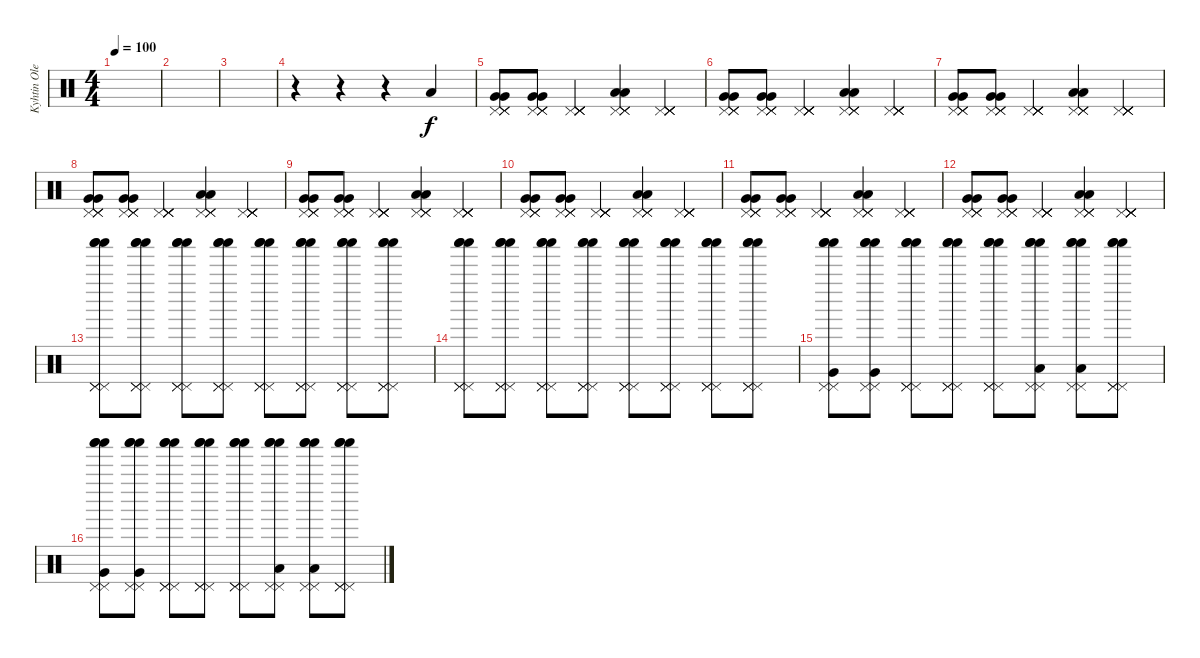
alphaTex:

\track ("Kyhtin Oleksandr" "Kyhtin Ole") {instrument percussion}
\staff {score}
\articulation defaults
\ts (4 4)
\tempo 100
\clef neutral
\ks c
|
|
|
r.4 r.4 r.4 "Low Floor Tom (hit)".4 |
("Pedal Hi-Hat (hit)" "Pedal Hi-Hat (hit)" "Pedal Hi-Hat (hit)" "Pedal Hi-Hat (hit)" "Very Low Tom (hit)" "Very Low Tom (hit)").8 ("Pedal Hi-Hat (hit)" "Pedal Hi-Hat (hit)" "Pedal Hi-Hat (hit)" "Pedal Hi-Hat (hit)" "Very Low Tom (hit)" "Very Low Tom (hit)").8 ("Pedal Hi-Hat (hit)" "Pedal Hi-Hat (hit)" "Pedal Hi-Hat (hit)" "Pedal Hi-Hat (hit)" "Pedal Hi-Hat (hit)" "Pedal Hi-Hat (hit)").4 ("Pedal Hi-Hat (hit)" "Pedal Hi-Hat (hit)" "Pedal Hi-Hat (hit)" "Pedal Hi-Hat (hit)" "Low Floor Tom (hit)" "Low Floor Tom (hit)").4 ("Pedal Hi-Hat (hit)" "Pedal Hi-Hat (hit)" "Pedal Hi-Hat (hit)" "Pedal Hi-Hat (hit)" "Pedal Hi-Hat (hit)" "Pedal Hi-Hat (hit)").4 |
("Pedal Hi-Hat (hit)" "Pedal Hi-Hat (hit)" "Pedal Hi-Hat (hit)" "Pedal Hi-Hat (hit)" "Very Low Tom (hit)" "Very Low Tom (hit)").8 ("Pedal Hi-Hat (hit)" "Pedal Hi-Hat (hit)" "Pedal Hi-Hat (hit)" "Pedal Hi-Hat (hit)" "Very Low Tom (hit)" "Very Low Tom (hit)").8 ("Pedal Hi-Hat (hit)" "Pedal Hi-Hat (hit)" "Pedal Hi-Hat (hit)" "Pedal Hi-Hat (hit)" "Pedal Hi-Hat (hit)" "Pedal Hi-Hat (hit)").4 ("Pedal Hi-Hat (hit)" "Pedal Hi-Hat (hit)" "Pedal Hi-Hat (hit)" "Pedal Hi-Hat (hit)" "Low Floor Tom (hit)" "Low Floor Tom (hit)").4 ("Pedal Hi-Hat (hit)" "Pedal Hi-Hat (hit)" "Pedal Hi-Hat (hit)" "Pedal Hi-Hat (hit)" "Pedal Hi-Hat (hit)" "Pedal Hi-Hat (hit)").4 |
("Pedal Hi-Hat (hit)" "Pedal Hi-Hat (hit)" "Pedal Hi-Hat (hit)" "Pedal Hi-Hat (hit)" "Very Low Tom (hit)" "Very Low Tom (hit)").8 ("Pedal Hi-Hat (hit)" "Pedal Hi-Hat (hit)" "Pedal Hi-Hat (hit)" "Pedal Hi-Hat (hit)" "Very Low Tom (hit)" "Very Low Tom (hit)").8 ("Pedal Hi-Hat (hit)" "Pedal Hi-Hat (hit)" "Pedal Hi-Hat (hit)" "Pedal Hi-Hat (hit)" "Pedal Hi-Hat (hit)" "Pedal Hi-Hat (hit)").4 ("Pedal Hi-Hat (hit)" "Pedal Hi-Hat (hit)" "Pedal Hi-Hat (hit)" "Pedal Hi-Hat (hit)" "Low Floor Tom (hit)" "Low Floor Tom (hit)").4 ("Pedal Hi-Hat (hit)" "Pedal Hi-Hat (hit)" "Pedal Hi-Hat (hit)" "Pedal Hi-Hat (hit)" "Pedal Hi-Hat (hit)" "Pedal Hi-Hat (hit)").4 |
("Pedal Hi-Hat (hit)" "Pedal Hi-Hat (hit)" "Pedal Hi-Hat (hit)" "Pedal Hi-Hat (hit)" "Very Low Tom (hit)" "Very Low Tom (hit)").8 ("Pedal Hi-Hat (hit)" "Pedal Hi-Hat (hit)" "Pedal Hi-Hat (hit)" "Pedal Hi-Hat (hit)" "Very Low Tom (hit)" "Very Low Tom (hit)").8 ("Pedal Hi-Hat (hit)" "Pedal Hi-Hat (hit)" "Pedal Hi-Hat (hit)" "Pedal Hi-Hat (hit)" "Pedal Hi-Hat (hit)" "Pedal Hi-Hat (hit)").4 ("Pedal Hi-Hat (hit)" "Pedal Hi-Hat (hit)" "Pedal Hi-Hat (hit)" "Pedal Hi-Hat (hit)" "Low Floor Tom (hit)" "Low Floor Tom (hit)").4 ("Pedal Hi-Hat (hit)" "Pedal Hi-Hat (hit)" "Pedal Hi-Hat (hit)" "Pedal Hi-Hat (hit)" "Pedal Hi-Hat (hit)" "Pedal Hi-Hat (hit)").4 |
("Pedal Hi-Hat (hit)" "Pedal Hi-Hat (hit)" "Pedal Hi-Hat (hit)" "Pedal Hi-Hat (hit)" "Very Low Tom (hit)" "Very Low Tom (hit)").8 ("Pedal Hi-Hat (hit)" "Pedal Hi-Hat (hit)" "Pedal Hi-Hat (hit)" "Pedal Hi-Hat (hit)" "Very Low Tom (hit)" "Very Low Tom (hit)").8 ("Pedal Hi-Hat (hit)" "Pedal Hi-Hat (hit)" "Pedal Hi-Hat (hit)" "Pedal Hi-Hat (hit)" "Pedal Hi-Hat (hit)" "Pedal Hi-Hat (hit)").4 ("Pedal Hi-Hat (hit)" "Pedal Hi-Hat (hit)" "Pedal Hi-Hat (hit)" "Pedal Hi-Hat (hit)" "Low Floor Tom (hit)" "Low Floor Tom (hit)").4 ("Pedal Hi-Hat (hit)" "Pedal Hi-Hat (hit)" "Pedal Hi-Hat (hit)" "Pedal Hi-Hat (hit)" "Pedal Hi-Hat (hit)" "Pedal Hi-Hat (hit)").4 |
("Pedal Hi-Hat (hit)" "Pedal Hi-Hat (hit)" "Pedal Hi-Hat (hit)" "Pedal Hi-Hat (hit)" "Very Low Tom (hit)" "Very Low Tom (hit)").8 ("Pedal Hi-Hat (hit)" "Pedal Hi-Hat (hit)" "Pedal Hi-Hat (hit)" "Pedal Hi-Hat (hit)" "Very Low Tom (hit)" "Very Low Tom (hit)").8 ("Pedal Hi-Hat (hit)" "Pedal Hi-Hat (hit)" "Pedal Hi-Hat (hit)" "Pedal Hi-Hat (hit)" "Pedal Hi-Hat (hit)" "Pedal Hi-Hat (hit)").4 ("Pedal Hi-Hat (hit)" "Pedal Hi-Hat (hit)" "Pedal Hi-Hat (hit)" "Pedal Hi-Hat (hit)" "Low Floor Tom (hit)" "Low Floor Tom (hit)").4 ("Pedal Hi-Hat (hit)" "Pedal Hi-Hat (hit)" "Pedal Hi-Hat (hit)" "Pedal Hi-Hat (hit)" "Pedal Hi-Hat (hit)" "Pedal Hi-Hat (hit)").4 |
("Pedal Hi-Hat (hit)" "Pedal Hi-Hat (hit)" "Pedal Hi-Hat (hit)" "Pedal Hi-Hat (hit)" "Very Low Tom (hit)" "Very Low Tom (hit)").8 ("Pedal Hi-Hat (hit)" "Pedal Hi-Hat (hit)" "Pedal Hi-Hat (hit)" "Pedal Hi-Hat (hit)" "Very Low Tom (hit)" "Very Low Tom (hit)").8 ("Pedal Hi-Hat (hit)" "Pedal Hi-Hat (hit)" "Pedal Hi-Hat (hit)" "Pedal Hi-Hat (hit)" "Pedal Hi-Hat (hit)" "Pedal Hi-Hat (hit)").4 ("Pedal Hi-Hat (hit)" "Pedal Hi-Hat (hit)" "Pedal Hi-Hat (hit)" "Pedal Hi-Hat (hit)" "Low Floor Tom (hit)" "Low Floor Tom (hit)").4 ("Pedal Hi-Hat (hit)" "Pedal Hi-Hat (hit)" "Pedal Hi-Hat (hit)" "Pedal Hi-Hat (hit)" "Pedal Hi-Hat (hit)" "Pedal Hi-Hat (hit)").4 |
("Pedal Hi-Hat (hit)" "Pedal Hi-Hat (hit)" "Pedal Hi-Hat (hit)" "Pedal Hi-Hat (hit)" "Very Low Tom (hit)" "Very Low Tom (hit)").8 ("Pedal Hi-Hat (hit)" "Pedal Hi-Hat (hit)" "Pedal Hi-Hat (hit)" "Pedal Hi-Hat (hit)" "Very Low Tom (hit)" "Very Low Tom (hit)").8 ("Pedal Hi-Hat (hit)" "Pedal Hi-Hat (hit)" "Pedal Hi-Hat (hit)" "Pedal Hi-Hat (hit)" "Pedal Hi-Hat (hit)" "Pedal Hi-Hat (hit)").4 ("Pedal Hi-Hat (hit)" "Pedal Hi-Hat (hit)" "Pedal Hi-Hat (hit)" "Pedal Hi-Hat (hit)" "Low Floor Tom (hit)" "Low Floor Tom (hit)").4 ("Pedal Hi-Hat (hit)" "Pedal Hi-Hat (hit)" "Pedal Hi-Hat (hit)" "Pedal Hi-Hat (hit)" "Pedal Hi-Hat (hit)" "Pedal Hi-Hat (hit)").4 |
("Pedal Hi-Hat (hit)" "Shaker (hit)" "Pedal Hi-Hat (hit)" "Shaker (hit)" "Pedal Hi-Hat (hit)" "Shaker (hit)").8 ("Pedal Hi-Hat (hit)" "Shaker (hit)" "Pedal Hi-Hat (hit)" "Shaker (hit)" "Pedal Hi-Hat (hit)" "Shaker (hit)").8 ("Pedal Hi-Hat (hit)" "Shaker (hit)" "Pedal Hi-Hat (hit)" "Shaker (hit)" "Pedal Hi-Hat (hit)" "Shaker (hit)").8 ("Pedal Hi-Hat (hit)" "Shaker (hit)" "Pedal Hi-Hat (hit)" "Shaker (hit)" "Pedal Hi-Hat (hit)" "Shaker (hit)").8 ("Pedal Hi-Hat (hit)" "Shaker (hit)" "Pedal Hi-Hat (hit)" "Shaker (hit)" "Pedal Hi-Hat (hit)" "Shaker (hit)").8 ("Pedal Hi-Hat (hit)" "Shaker (hit)" "Pedal Hi-Hat (hit)" "Shaker (hit)" "Pedal Hi-Hat (hit)" "Shaker (hit)").8 ("Pedal Hi-Hat (hit)" "Shaker (hit)" "Pedal Hi-Hat (hit)" "Shaker (hit)" "Pedal Hi-Hat (hit)" "Shaker (hit)").8 ("Pedal Hi-Hat (hit)" "Shaker (hit)" "Pedal Hi-Hat (hit)" "Shaker (hit)" "Pedal Hi-Hat (hit)" "Shaker (hit)").8 |
("Pedal Hi-Hat (hit)" "Shaker (hit)" "Pedal Hi-Hat (hit)" "Shaker (hit)" "Pedal Hi-Hat (hit)" "Shaker (hit)").8 ("Pedal Hi-Hat (hit)" "Shaker (hit)" "Pedal Hi-Hat (hit)" "Shaker (hit)" "Pedal Hi-Hat (hit)" "Shaker (hit)").8 ("Pedal Hi-Hat (hit)" "Shaker (hit)" "Pedal Hi-Hat (hit)" "Shaker (hit)" "Pedal Hi-Hat (hit)" "Shaker (hit)").8 ("Pedal Hi-Hat (hit)" "Shaker (hit)" "Pedal Hi-Hat (hit)" "Shaker (hit)" "Pedal Hi-Hat (hit)" "Shaker (hit)").8 ("Pedal Hi-Hat (hit)" "Shaker (hit)" "Pedal Hi-Hat (hit)" "Shaker (hit)" "Pedal Hi-Hat (hit)" "Shaker (hit)").8 ("Pedal Hi-Hat (hit)" "Shaker (hit)" "Pedal Hi-Hat (hit)" "Shaker (hit)" "Pedal Hi-Hat (hit)" "Shaker (hit)").8 ("Pedal Hi-Hat (hit)" "Shaker (hit)" "Pedal Hi-Hat (hit)" "Shaker (hit)" "Pedal Hi-Hat (hit)" "Shaker (hit)").8 ("Pedal Hi-Hat (hit)" "Shaker (hit)" "Pedal Hi-Hat (hit)" "Shaker (hit)" "Pedal Hi-Hat (hit)" "Shaker (hit)").8 |
("Pedal Hi-Hat (hit)" "Shaker (hit)" "Pedal Hi-Hat (hit)" "Shaker (hit)" "Very Low Tom (hit)" "Shaker (hit)").8 ("Pedal Hi-Hat (hit)" "Shaker (hit)" "Pedal Hi-Hat (hit)" "Shaker (hit)" "Very Low Tom (hit)" "Shaker (hit)").8 ("Pedal Hi-Hat (hit)" "Shaker (hit)" "Pedal Hi-Hat (hit)" "Shaker (hit)" "Pedal Hi-Hat (hit)" "Shaker (hit)").8 ("Pedal Hi-Hat (hit)" "Shaker (hit)" "Pedal Hi-Hat (hit)" "Shaker (hit)" "Pedal Hi-Hat (hit)" "Shaker (hit)").8 ("Pedal Hi-Hat (hit)" "Shaker (hit)" "Pedal Hi-Hat (hit)" "Shaker (hit)" "Pedal Hi-Hat (hit)" "Shaker (hit)").8 ("Pedal Hi-Hat (hit)" "Shaker (hit)" "Pedal Hi-Hat (hit)" "Shaker (hit)" "Low Floor Tom (hit)" "Shaker (hit)").8 ("Pedal Hi-Hat (hit)" "Shaker (hit)" "Pedal Hi-Hat (hit)" "Shaker (hit)" "Low Floor Tom (hit)" "Shaker (hit)").8 ("Pedal Hi-Hat (hit)" "Shaker (hit)" "Pedal Hi-Hat (hit)" "Shaker (hit)" "Pedal Hi-Hat (hit)" "Shaker (hit)").8 |
("Pedal Hi-Hat (hit)" "Shaker (hit)" "Pedal Hi-Hat (hit)" "Shaker (hit)" "Very Low Tom (hit)" "Shaker (hit)").8 ("Pedal Hi-Hat (hit)" "Shaker (hit)" "Pedal Hi-Hat (hit)" "Shaker (hit)" "Very Low Tom (hit)" "Shaker (hit)").8 ("Pedal Hi-Hat (hit)" "Shaker (hit)" "Pedal Hi-Hat (hit)" "Shaker (hit)" "Pedal Hi-Hat (hit)" "Shaker (hit)").8 ("Pedal Hi-Hat (hit)" "Shaker (hit)" "Pedal Hi-Hat (hit)" "Shaker (hit)" "Pedal Hi-Hat (hit)" "Shaker (hit)").8 ("Pedal Hi-Hat (hit)" "Shaker (hit)" "Pedal Hi-Hat (hit)" "Shaker (hit)" "Pedal Hi-Hat (hit)" "Shaker (hit)").8 ("Pedal Hi-Hat (hit)" "Shaker (hit)" "Pedal Hi-Hat (hit)" "Shaker (hit)" "Low Floor Tom (hit)" "Shaker (hit)").8 ("Pedal Hi-Hat (hit)" "Shaker (hit)" "Pedal Hi-Hat (hit)" "Shaker (hit)" "Low Floor Tom (hit)" "Shaker (hit)").8 ("Pedal Hi-Hat (hit)" "Shaker (hit)" "Pedal Hi-Hat (hit)" "Shaker (hit)" "Pedal Hi-Hat (hit)" "Shaker (hit)").8
